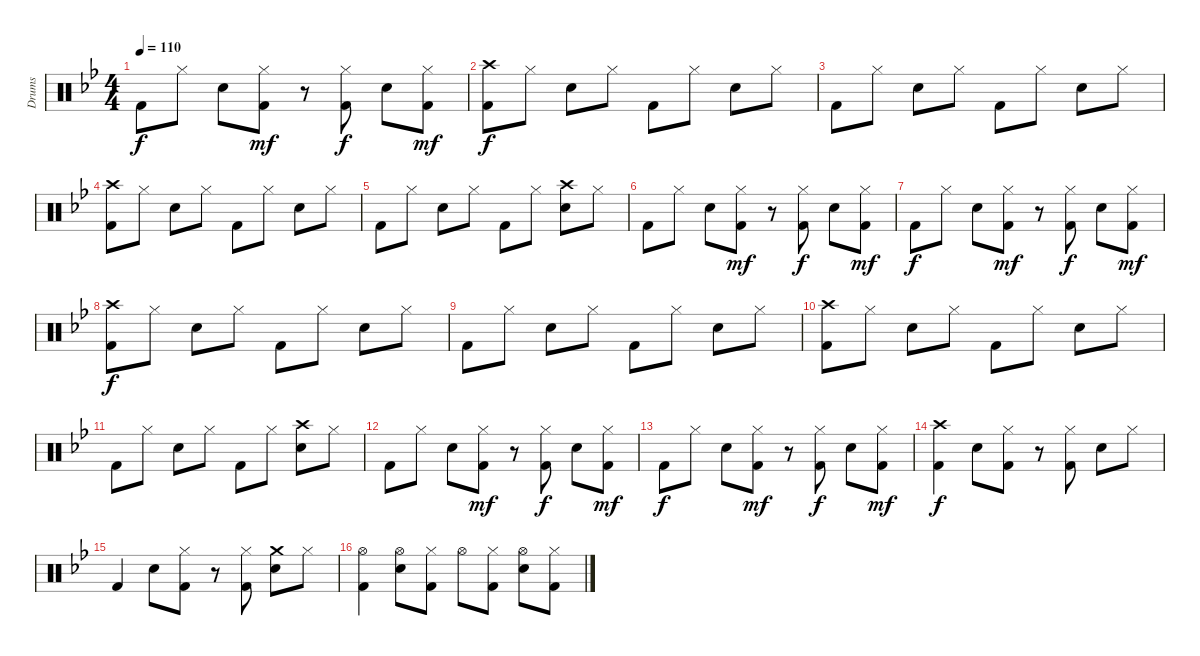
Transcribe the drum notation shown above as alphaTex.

\track ("Drums" "Drums") {instrument percussion}
\staff {score}
\articulation defaults
\ts (4 4)
\tempo 110
\clef neutral
\ks gminor "Kick (hit) 2".8{dy f} "Hi-Hat (closed)".8 "Snare (hit) 2".8
("Hi-Hat (closed)" "Kick (hit) 2").8{dy mf} r.8 ("Hi-Hat (closed)" "Kick (hit) 2").8{dy f} "Snare (hit) 2".8 ("Hi-Hat (closed)" "Kick (hit) 2").8{dy mf} |
("Crash high (hit)" "Kick (hit) 2").8{dy f} "Hi-Hat (closed)".8 "Snare (hit) 2".8 "Hi-Hat (closed)".8 "Kick (hit) 2".8 "Hi-Hat (closed)".8 "Snare (hit) 2".8 "Hi-Hat (closed)".8 |
"Kick (hit) 2".8 "Hi-Hat (closed)".8 "Snare (hit) 2".8 "Hi-Hat (closed)".8 "Kick (hit) 2".8 "Hi-Hat (closed)".8 "Snare (hit) 2".8 "Hi-Hat (closed)".8 |
("Crash high (hit)" "Kick (hit) 2").8 "Hi-Hat (closed)".8 "Snare (hit) 2".8 "Hi-Hat (closed)".8 "Kick (hit) 2".8 "Hi-Hat (closed)".8 "Snare (hit) 2".8 "Hi-Hat (closed)".8 |
"Kick (hit) 2".8 "Hi-Hat (closed)".8 "Snare (hit) 2".8 "Hi-Hat (closed)".8 "Kick (hit) 2".8 "Hi-Hat (closed)".8 ("Crash high (hit)" "Snare (hit) 2").8 "Hi-Hat (closed)".8 |
"Kick (hit) 2".8 "Hi-Hat (closed)".8 "Snare (hit) 2".8 ("Hi-Hat (closed)" "Kick (hit) 2").8{dy mf} r.8 ("Hi-Hat (closed)" "Kick (hit) 2").8{dy f} "Snare (hit) 2".8 ("Hi-Hat (closed)" "Kick (hit) 2").8{dy mf} |
"Kick (hit) 2".8{dy f} "Hi-Hat (closed)".8 "Snare (hit) 2".8 ("Hi-Hat (closed)" "Kick (hit) 2").8{dy mf} r.8 ("Hi-Hat (closed)" "Kick (hit) 2").8{dy f} "Snare (hit) 2".8 ("Hi-Hat (closed)" "Kick (hit) 2").8{dy mf} |
("Crash high (hit)" "Kick (hit) 2").8{dy f} "Hi-Hat (closed)".8 "Snare (hit) 2".8 "Hi-Hat (closed)".8 "Kick (hit) 2".8 "Hi-Hat (closed)".8 "Snare (hit) 2".8 "Hi-Hat (closed)".8 |
"Kick (hit) 2".8 "Hi-Hat (closed)".8 "Snare (hit) 2".8 "Hi-Hat (closed)".8 "Kick (hit) 2".8 "Hi-Hat (closed)".8 "Snare (hit) 2".8 "Hi-Hat (closed)".8 |
("Crash high (hit)" "Kick (hit) 2").8 "Hi-Hat (closed)".8 "Snare (hit) 2".8 "Hi-Hat (closed)".8 "Kick (hit) 2".8 "Hi-Hat (closed)".8 "Snare (hit) 2".8 "Hi-Hat (closed)".8 |
"Kick (hit) 2".8 "Hi-Hat (closed)".8 "Snare (hit) 2".8 "Hi-Hat (closed)".8 "Kick (hit) 2".8 "Hi-Hat (closed)".8 ("Crash high (hit)" "Snare (hit) 2").8 "Hi-Hat (closed)".8 |
"Kick (hit) 2".8 "Hi-Hat (closed)".8 "Snare (hit) 2".8 ("Hi-Hat (closed)" "Kick (hit) 2").8{dy mf} r.8 ("Hi-Hat (closed)" "Kick (hit) 2").8{dy f} "Snare (hit) 2".8 ("Hi-Hat (closed)" "Kick (hit) 2").8{dy mf} |
"Kick (hit) 2".8{dy f} "Hi-Hat (closed)".8 "Snare (hit) 2".8 ("Hi-Hat (closed)" "Kick (hit) 2").8{dy mf} r.8 ("Hi-Hat (closed)" "Kick (hit) 2").8{dy f} "Snare (hit) 2".8 ("Hi-Hat (closed)" "Kick (hit) 2").8{dy mf} |
("Crash high (hit)" "Kick (hit) 2").4{dy f} "Snare (hit) 2".8 ("Hi-Hat (closed)" "Kick (hit) 2").8 r.8 ("Hi-Hat (closed)" "Kick (hit) 2").8 "Snare (hit) 2".8 "Hi-Hat (closed)".8 |
"Kick (hit) 2".4 "Snare (hit) 2".8 ("Hi-Hat (closed)" "Kick (hit) 2").8 r.8 ("Hi-Hat (closed)" "Kick (hit) 2").8 ("Crash medium (hit)" "Snare (hit) 2").8 "Hi-Hat (closed)".8 |
("Hi-Hat (open)" "Kick (hit) 2").4 ("Hi-Hat (open)" "Snare (hit) 2").8 ("Hi-Hat (closed)" "Kick (hit) 2").8 "Hi-Hat (open)".8 ("Hi-Hat (closed)" "Kick (hit) 2").8 ("Hi-Hat (open)" "Snare (hit) 2").8 ("Hi-Hat (closed)" "Kick (hit) 2").8
